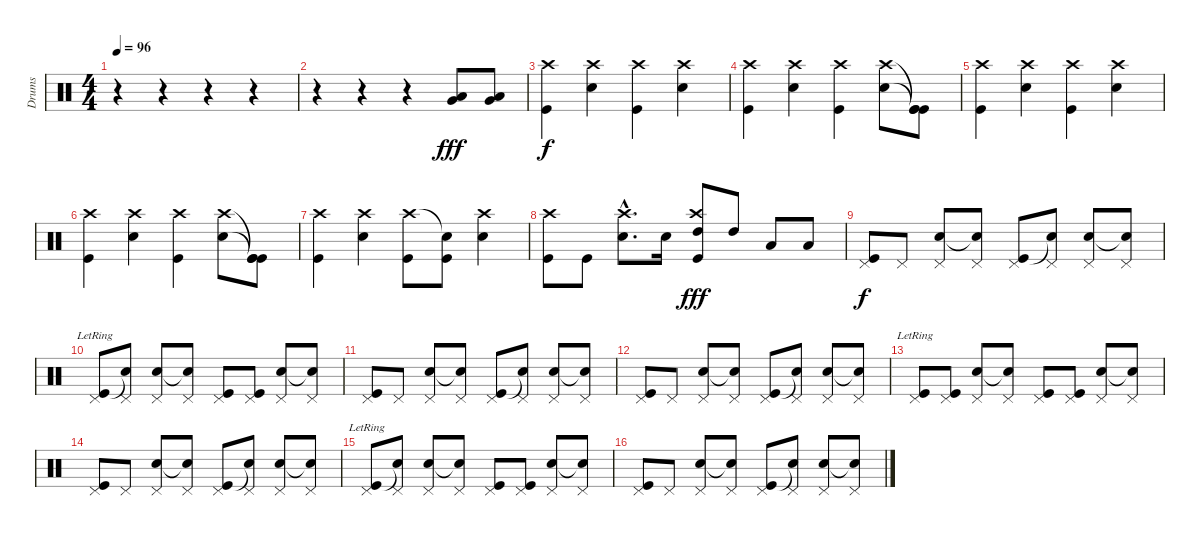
\track ("Drums" "Drums") {instrument percussion}
\staff {score}
\articulation defaults
\ts (4 4)
\tempo 96
\clef neutral
\ks c
r.4{dy fff} r.4 r.4 r.4 |
r.4 r.4 r.4 ("Low Tom (hit)" "Very Low Tom (hit)").8 ("Low Tom (hit)" "Very Low Tom (hit)").8 |
("Kick (hit)" "Crash high (hit)").4{dy f} ("Snare (hit) 2" "Crash high (hit)").4 ("Kick (hit)" "Crash high (hit)").4 ("Snare (hit) 2" "Crash high (hit)").4 |
("Kick (hit)" "Crash high (hit)").4 ("Snare (hit) 2" "Crash high (hit)").4 ("Kick (hit)" "Crash high (hit)").4 ("Snare (hit) 2" "Crash high (hit)").8 ("Kick (hit)"{t} "Kick (hit)"{t} "Kick (hit)").8 |
("Kick (hit)" "Crash high (hit)").4 ("Snare (hit) 2" "Crash high (hit)").4 ("Kick (hit)" "Crash high (hit)").4 ("Snare (hit) 2" "Crash high (hit)").4 |
("Kick (hit)" "Crash high (hit)").4 ("Snare (hit) 2" "Crash high (hit)").4 ("Kick (hit)" "Crash high (hit)").4 ("Snare (hit) 2" "Crash high (hit)").8 ("Kick (hit)"{t} "Kick (hit)"{t} "Kick (hit)").8 |
("Kick (hit)" "Crash high (hit)").4 ("Snare (hit) 2" "Crash high (hit)").4 ("Kick (hit)" "Crash high (hit)").8 ("Kick (hit)" "Snare (hit)"{t}).8 ("Snare (hit) 2" "Crash high (hit)").4 |
("Kick (hit)" "Crash high (hit)").8 "Kick (hit)".8 ("Snare (hit) 2"{hac} "Crash high (hit)"{hac}).8{d} "Snare (hit) 2".16 ("Kick (hit)" "High Tom (hit)" "Crash high (hit)").8{dy fff} "High Tom (hit)".8 "Low Tom (hit)".8 "Low Tom (hit)".8 |
("Kick (hit)" "Pedal Hi-Hat (hit)").8{dy f} "Pedal Hi-Hat (hit)".8 ("Snare (hit) 2" "Pedal Hi-Hat (hit)").8 ("Snare (hit)"{t} "Pedal Hi-Hat (hit)").8 ("Kick (hit)" "Pedal Hi-Hat (hit)").8 ("Snare (hit)"{t} "Pedal Hi-Hat (hit)").8 ("Snare (hit) 2" "Pedal Hi-Hat (hit)").8 ("Snare (hit)"{t} "Pedal Hi-Hat (hit)").8 |
("Kick (hit)"{lr} "Pedal Hi-Hat (hit)").8 ("Snare (hit)"{t} "Pedal Hi-Hat (hit)").8 ("Snare (hit) 2" "Pedal Hi-Hat (hit)").8 ("Snare (hit)"{t} "Pedal Hi-Hat (hit)").8 ("Kick (hit)" "Pedal Hi-Hat (hit)").8 ("Kick (hit)" "Pedal Hi-Hat (hit)").8 ("Snare (hit) 2" "Pedal Hi-Hat (hit)").8 ("Snare (hit)"{t} "Pedal Hi-Hat (hit)").8 |
("Kick (hit)" "Pedal Hi-Hat (hit)").8 "Pedal Hi-Hat (hit)".8 ("Snare (hit) 2" "Pedal Hi-Hat (hit)").8 ("Snare (hit)"{t} "Pedal Hi-Hat (hit)").8 ("Kick (hit)" "Pedal Hi-Hat (hit)").8 ("Snare (hit)"{t} "Pedal Hi-Hat (hit)").8 ("Snare (hit) 2" "Pedal Hi-Hat (hit)").8 ("Snare (hit)"{t} "Pedal Hi-Hat (hit)").8 |
("Kick (hit)" "Pedal Hi-Hat (hit)").8 "Pedal Hi-Hat (hit)".8 ("Snare (hit) 2" "Pedal Hi-Hat (hit)").8 ("Snare (hit)"{t} "Pedal Hi-Hat (hit)").8 ("Kick (hit)" "Pedal Hi-Hat (hit)").8 ("Snare (hit)"{t} "Pedal Hi-Hat (hit)").8 ("Snare (hit) 2" "Pedal Hi-Hat (hit)").8 ("Snare (hit)"{t} "Pedal Hi-Hat (hit)").8 |
("Kick (hit)"{lr} "Pedal Hi-Hat (hit)").8 ("Kick (hit)" "Pedal Hi-Hat (hit)").8 ("Snare (hit) 2" "Pedal Hi-Hat (hit)").8 ("Snare (hit)"{t} "Pedal Hi-Hat (hit)").8 ("Kick (hit)" "Pedal Hi-Hat (hit)").8 ("Kick (hit)" "Pedal Hi-Hat (hit)").8 ("Snare (hit) 2" "Pedal Hi-Hat (hit)").8 ("Snare (hit)"{t} "Pedal Hi-Hat (hit)").8 |
("Kick (hit)" "Pedal Hi-Hat (hit)").8 "Pedal Hi-Hat (hit)".8 ("Snare (hit) 2" "Pedal Hi-Hat (hit)").8 ("Snare (hit)"{t} "Pedal Hi-Hat (hit)").8 ("Kick (hit)" "Pedal Hi-Hat (hit)").8 ("Snare (hit)"{t} "Pedal Hi-Hat (hit)").8 ("Snare (hit) 2" "Pedal Hi-Hat (hit)").8 ("Snare (hit)"{t} "Pedal Hi-Hat (hit)").8 |
("Kick (hit)"{lr} "Pedal Hi-Hat (hit)").8 ("Snare (hit)"{t} "Pedal Hi-Hat (hit)").8 ("Snare (hit) 2" "Pedal Hi-Hat (hit)").8 ("Snare (hit)"{t} "Pedal Hi-Hat (hit)").8 ("Kick (hit)" "Pedal Hi-Hat (hit)").8 ("Kick (hit)" "Pedal Hi-Hat (hit)").8 ("Snare (hit) 2" "Pedal Hi-Hat (hit)").8 ("Snare (hit)"{t} "Pedal Hi-Hat (hit)").8 |
("Kick (hit)" "Pedal Hi-Hat (hit)").8 "Pedal Hi-Hat (hit)".8 ("Snare (hit) 2" "Pedal Hi-Hat (hit)").8 ("Snare (hit)"{t} "Pedal Hi-Hat (hit)").8 ("Kick (hit)" "Pedal Hi-Hat (hit)").8 ("Snare (hit)"{t} "Pedal Hi-Hat (hit)").8 ("Snare (hit) 2" "Pedal Hi-Hat (hit)").8 ("Snare (hit)"{t} "Pedal Hi-Hat (hit)").8
